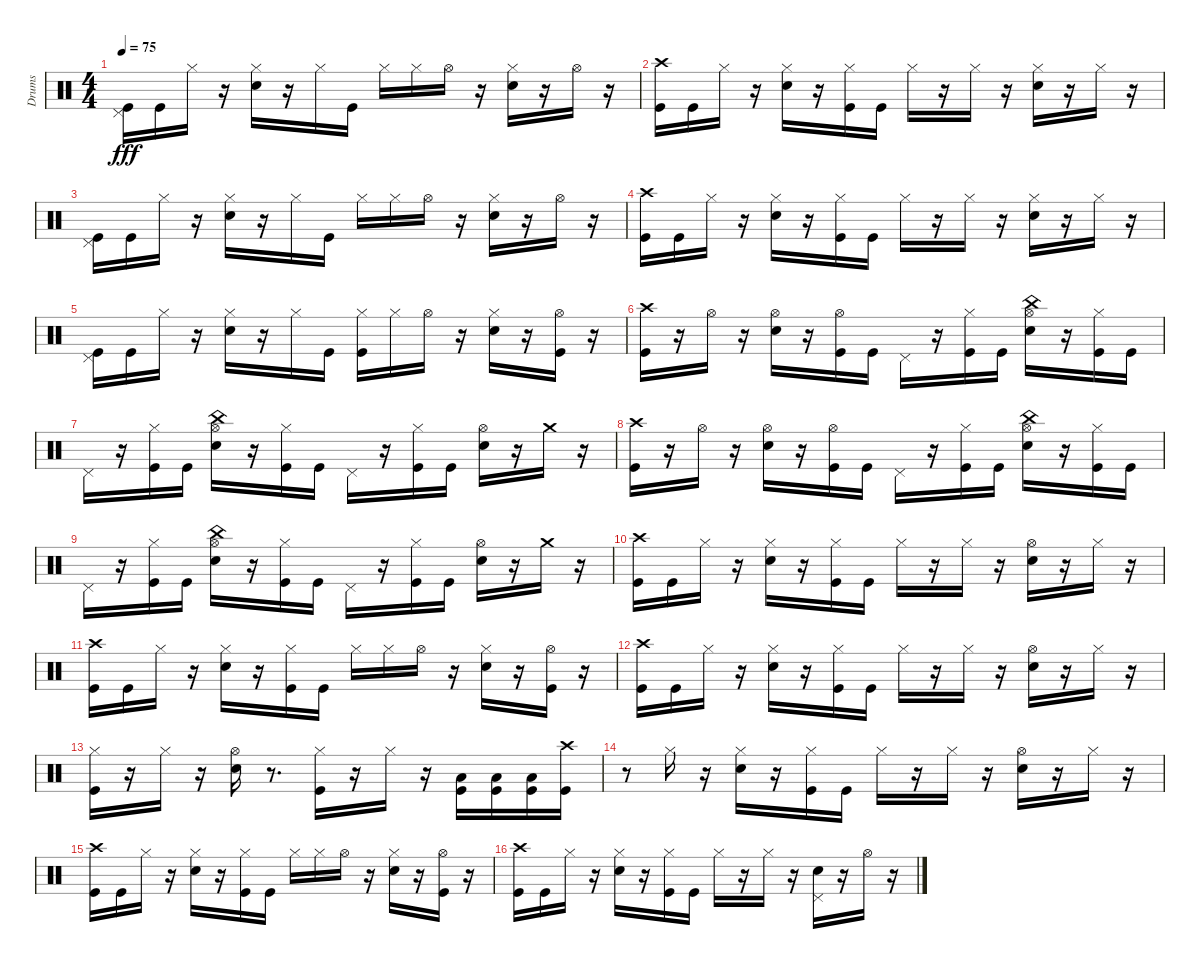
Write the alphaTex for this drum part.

\track ("Drums" "Drums") {instrument percussion}
\staff {score}
\articulation defaults
\ts (4 4)
\tempo 75
\clef neutral
\ks c
("Pedal Hi-Hat (hit)" "Kick (hit)").16{dy fff} "Kick (hit)".16 "Hi-Hat (closed)".16 r.16 ("Hi-Hat (closed)" "Snare (hit) 2").16 r.16 "Hi-Hat (closed)".16 "Kick (hit)".16 "Hi-Hat (closed)".16 "Hi-Hat (closed)".16 "Hi-Hat (open)".16 r.16 ("Hi-Hat (closed)" "Snare (hit) 2").16 r.16 "Hi-Hat (open)".16 r.16 |
("Crash high (hit)" "Kick (hit)").16 "Kick (hit)".16 "Hi-Hat (closed)".16 r.16 ("Hi-Hat (closed)" "Snare (hit) 2").16 r.16 ("Hi-Hat (closed)" "Kick (hit)").16 "Kick (hit)".16 "Hi-Hat (closed)".16 r.16 "Hi-Hat (closed)".16 r.16 ("Snare (hit) 2" "Hi-Hat (closed)").16 r.16 "Hi-Hat (closed)".16 r.16 |
("Kick (hit)" "Pedal Hi-Hat (hit)").16 "Kick (hit)".16 "Hi-Hat (closed)".16 r.16 ("Snare (hit) 2" "Hi-Hat (closed)").16 r.16 "Hi-Hat (closed)".16 "Kick (hit)".16 "Hi-Hat (closed)".16 "Hi-Hat (closed)".16 "Hi-Hat (open)".16 r.16 ("Snare (hit) 2" "Hi-Hat (closed)").16 r.16 "Hi-Hat (open)".16 r.16 |
("Kick (hit)" "Crash high (hit)").16 "Kick (hit)".16 "Hi-Hat (closed)".16 r.16 ("Snare (hit) 2" "Hi-Hat (closed)").16 r.16 ("Kick (hit)" "Hi-Hat (closed)").16 "Kick (hit)".16 "Hi-Hat (closed)".16 r.16 "Hi-Hat (closed)".16 r.16 ("Hi-Hat (closed)" "Snare (hit) 2").16 r.16 "Hi-Hat (closed)".16 r.16 |
("Pedal Hi-Hat (hit)" "Kick (hit)").16 "Kick (hit)".16 "Hi-Hat (closed)".16 r.16 ("Hi-Hat (closed)" "Snare (hit) 2").16 r.16 "Hi-Hat (closed)".16 "Kick (hit)".16 ("Kick (hit)" "Hi-Hat (closed)").16 "Hi-Hat (closed)".16 "Hi-Hat (open)".16 r.16 ("Hi-Hat (closed)" "Snare (hit) 2").16 r.16 ("Kick (hit)" "Hi-Hat (open)").16 r.16 |
("Crash high (hit)" "Kick (hit)").16 r.16 "Hi-Hat (open)".16 r.16 ("Hi-Hat (open)" "Snare (hit) 2").16 r.16 ("Hi-Hat (open)" "Kick (hit)").16 "Kick (hit)".16 "Pedal Hi-Hat (hit)".16 r.16 ("Hi-Hat (closed)" "Kick (hit)").16 "Kick (hit)".16 ("Snare (hit) 2" "Hi-Hat (open)" "China (hit)").16 r.16 ("Hi-Hat (closed)" "Kick (hit)").16 "Kick (hit)".16 |
"Pedal Hi-Hat (hit)".16 r.16 ("Hi-Hat (closed)" "Kick (hit)").16 "Kick (hit)".16 ("Hi-Hat (open)" "China (hit)" "Snare (hit) 2").16 r.16 ("Hi-Hat (closed)" "Kick (hit)").16 "Kick (hit)".16 "Pedal Hi-Hat (hit)".16 r.16 ("Kick (hit)" "Hi-Hat (closed)").16 "Kick (hit)".16 ("Snare (hit) 2" "Hi-Hat (open)").16 r.16 "Crash medium (hit)".16 r.16 |
("Kick (hit)" "Crash high (hit)").16 r.16 "Hi-Hat (open)".16 r.16 ("Snare (hit) 2" "Hi-Hat (open)").16 r.16 ("Kick (hit)" "Hi-Hat (open)").16 "Kick (hit)".16 "Pedal Hi-Hat (hit)".16 r.16 ("Kick (hit)" "Hi-Hat (closed)").16 "Kick (hit)".16 ("China (hit)" "Hi-Hat (open)" "Snare (hit) 2").16 r.16 ("Kick (hit)" "Hi-Hat (closed)").16 "Kick (hit)".16 |
"Pedal Hi-Hat (hit)".16 r.16 ("Kick (hit)" "Hi-Hat (closed)").16 "Kick (hit)".16 ("Snare (hit) 2" "China (hit)" "Hi-Hat (open)").16 r.16 ("Kick (hit)" "Hi-Hat (closed)").16 "Kick (hit)".16 "Pedal Hi-Hat (hit)".16 r.16 ("Hi-Hat (closed)" "Kick (hit)").16 "Kick (hit)".16 ("Hi-Hat (open)" "Snare (hit) 2").16 r.16 "Crash medium (hit)".16 r.16 |
("Kick (hit)" "Crash high (hit)").16 "Kick (hit)".16 "Hi-Hat (closed)".16 r.16 ("Snare (hit) 2" "Hi-Hat (closed)").16 r.16 ("Kick (hit)" "Hi-Hat (closed)").16 "Kick (hit)".16 "Hi-Hat (closed)".16 r.16 "Hi-Hat (closed)".16 r.16 ("Snare (hit) 2" "Hi-Hat (open)").16 r.16 "Hi-Hat (closed)".16 r.16 |
("Crash high (hit)" "Kick (hit)").16 "Kick (hit)".16 "Hi-Hat (closed)".16 r.16 ("Hi-Hat (closed)" "Snare (hit) 2").16 r.16 ("Kick (hit)" "Hi-Hat (closed)").16 "Kick (hit)".16 "Hi-Hat (closed)".16 "Hi-Hat (closed)".16 "Hi-Hat (open)".16 r.16 ("Hi-Hat (closed)" "Snare (hit) 2").16 r.16 ("Kick (hit)" "Hi-Hat (open)").16 r.16 |
("Crash high (hit)" "Kick (hit)").16 "Kick (hit)".16 "Hi-Hat (closed)".16 r.16 ("Hi-Hat (closed)" "Snare (hit) 2").16 r.16 ("Hi-Hat (closed)" "Kick (hit)").16 "Kick (hit)".16 "Hi-Hat (closed)".16 r.16 "Hi-Hat (closed)".16 r.16 ("Hi-Hat (open)" "Snare (hit) 2").16 r.16 "Hi-Hat (closed)".16 r.16 |
("Hi-Hat (closed)" "Kick (hit)").16 r.16 "Hi-Hat (closed)".16 r.16 ("Hi-Hat (open)" "Snare (hit) 2").16 r.8{d} ("Hi-Hat (closed)" "Kick (hit)").16 r.16 "Hi-Hat (closed)".16 r.16 ("Low Floor Tom (hit)" "Kick (hit)").16 ("Low Floor Tom (hit)" "Kick (hit)").16 ("Low Floor Tom (hit)" "Kick (hit)").16 ("Crash high (hit)" "Kick (hit)").16 |
r.8 "Hi-Hat (closed)".16 r.16 ("Hi-Hat (closed)" "Snare (hit) 2").16 r.16 ("Hi-Hat (closed)" "Kick (hit)").16 "Kick (hit)".16 "Hi-Hat (closed)".16 r.16 "Hi-Hat (closed)".16 r.16 ("Hi-Hat (open)" "Snare (hit) 2").16 r.16 "Hi-Hat (closed)".16 r.16 |
("Kick (hit)" "Crash high (hit)").16 "Kick (hit)".16 "Hi-Hat (closed)".16 r.16 ("Snare (hit) 2" "Hi-Hat (closed)").16 r.16 ("Hi-Hat (closed)" "Kick (hit)").16 "Kick (hit)".16 "Hi-Hat (closed)".16 "Hi-Hat (closed)".16 "Hi-Hat (open)".16 r.16 ("Snare (hit) 2" "Hi-Hat (closed)").16 r.16 ("Hi-Hat (open)" "Kick (hit)").16 r.16 |
("Kick (hit)" "Crash high (hit)").16 "Kick (hit)".16 "Hi-Hat (closed)".16 r.16 ("Snare (hit) 2" "Hi-Hat (closed)").16 r.16 ("Kick (hit)" "Hi-Hat (closed)").16 "Kick (hit)".16 "Hi-Hat (closed)".16 r.16 "Hi-Hat (closed)".16 r.16 ("Pedal Hi-Hat (hit)" "Snare (hit) 2").16 r.16 "Hi-Hat (open)".16 r.16
